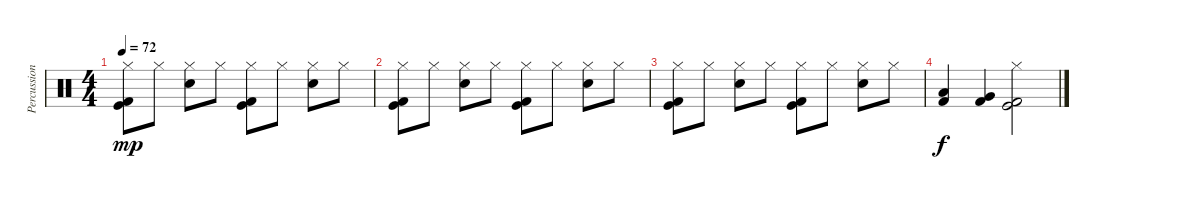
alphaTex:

\track ("Percussion" "Percussion") {instrument percussion}
\staff {score}
\articulation defaults
\ts (4 4)
\tempo 72
\clef neutral
\ks c
("Hi-Hat (closed)" "Kick (hit)" "Kick (hit) 2").8{dy mp} "Hi-Hat (closed)".8 ("Hi-Hat (closed)" "Electric Snare (hit)").8 "Hi-Hat (closed)".8 ("Hi-Hat (closed)" "Kick (hit)" "Kick (hit) 2").8 "Hi-Hat (closed)".8 ("Hi-Hat (closed)" "Electric Snare (hit)").8 "Hi-Hat (closed)".8 |
("Hi-Hat (closed)" "Kick (hit)" "Kick (hit) 2").8 "Hi-Hat (closed)".8 ("Hi-Hat (closed)" "Electric Snare (hit)").8 "Hi-Hat (closed)".8 ("Hi-Hat (closed)" "Kick (hit)" "Kick (hit) 2").8 "Hi-Hat (closed)".8 ("Hi-Hat (closed)" "Electric Snare (hit)").8 "Hi-Hat (closed)".8 |
("Hi-Hat (closed)" "Kick (hit)" "Kick (hit) 2").8 "Hi-Hat (closed)".8 ("Hi-Hat (closed)" "Electric Snare (hit)").8 "Hi-Hat (closed)".8 ("Hi-Hat (closed)" "Kick (hit)" "Kick (hit) 2").8 "Hi-Hat (closed)".8 ("Hi-Hat (closed)" "Electric Snare (hit)").8 "Hi-Hat (closed)".8 |
("Kick (hit) 2" "Low Tom (hit)").4{dy f} ("Kick (hit) 2" "Very Low Tom (hit)").4 ("Hi-Hat (closed)" "Kick (hit)" "Kick (hit) 2").2
